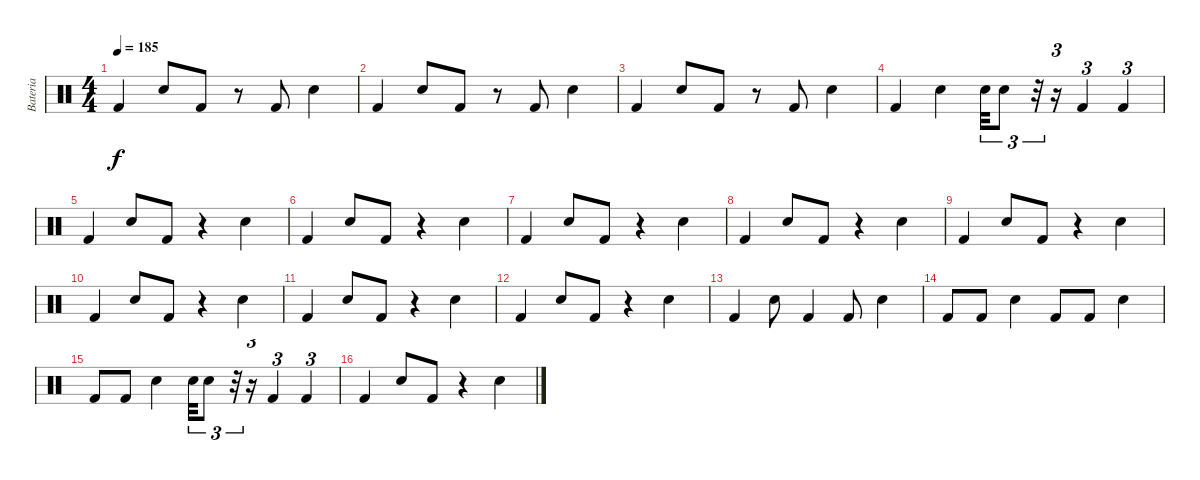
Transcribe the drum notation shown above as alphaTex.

\track ("Bateria" "Bateria") {instrument percussion}
\staff {score}
\articulation defaults
\ts (4 4)
\tempo 185
\clef neutral
\ks c "Kick (hit) 2".4{dy f} "Snare (hit) 2".8 "Kick (hit) 2".8
r.8 "Kick (hit) 2".8 "Snare (hit) 2".4 |
"Kick (hit) 2".4 "Snare (hit) 2".8 "Kick (hit) 2".8 r.8 "Kick (hit) 2".8 "Snare (hit) 2".4 |
"Kick (hit) 2".4 "Snare (hit) 2".8 "Kick (hit) 2".8 r.8 "Kick (hit) 2".8 "Snare (hit) 2".4 |
"Kick (hit) 2".4 "Snare (hit) 2".4 "Snare (hit) 2".32{tu (3 2)} "Snare (hit) 2".8{tu (3 2)} r.32{tu (3 2)} r.16{tu (3 2)} "Kick (hit) 2".4{tu (3 2)} "Kick (hit) 2".4{tu (3 2)} |
"Kick (hit) 2".4 "Snare (hit) 2".8 "Kick (hit) 2".8 r.4 "Snare (hit) 2".4 |
"Kick (hit) 2".4 "Snare (hit) 2".8 "Kick (hit) 2".8 r.4 "Snare (hit) 2".4 |
"Kick (hit) 2".4 "Snare (hit) 2".8 "Kick (hit) 2".8 r.4 "Snare (hit) 2".4 |
"Kick (hit) 2".4 "Snare (hit) 2".8 "Kick (hit) 2".8 r.4 "Snare (hit) 2".4 |
"Kick (hit) 2".4 "Snare (hit) 2".8 "Kick (hit) 2".8 r.4 "Snare (hit) 2".4 |
"Kick (hit) 2".4 "Snare (hit) 2".8 "Kick (hit) 2".8 r.4 "Snare (hit) 2".4 |
"Kick (hit) 2".4 "Snare (hit) 2".8 "Kick (hit) 2".8 r.4 "Snare (hit) 2".4 |
"Kick (hit) 2".4 "Snare (hit) 2".8 "Kick (hit) 2".8 r.4 "Snare (hit) 2".4 |
"Kick (hit) 2".4 "Snare (hit) 2".8 "Kick (hit) 2".4 "Kick (hit) 2".8 "Snare (hit) 2".4 |
"Kick (hit) 2".8 "Kick (hit) 2".8 "Snare (hit) 2".4 "Kick (hit) 2".8 "Kick (hit) 2".8 "Snare (hit) 2".4 |
"Kick (hit) 2".8 "Kick (hit) 2".8 "Snare (hit) 2".4 "Snare (hit) 2".32{tu (3 2)} "Snare (hit) 2".8{tu (3 2)} r.32{tu (3 2)} r.16{tu (3 2)} "Kick (hit) 2".4{tu (3 2)} "Kick (hit) 2".4{tu (3 2)} |
"Kick (hit) 2".4 "Snare (hit) 2".8 "Kick (hit) 2".8 r.4 "Snare (hit) 2".4
